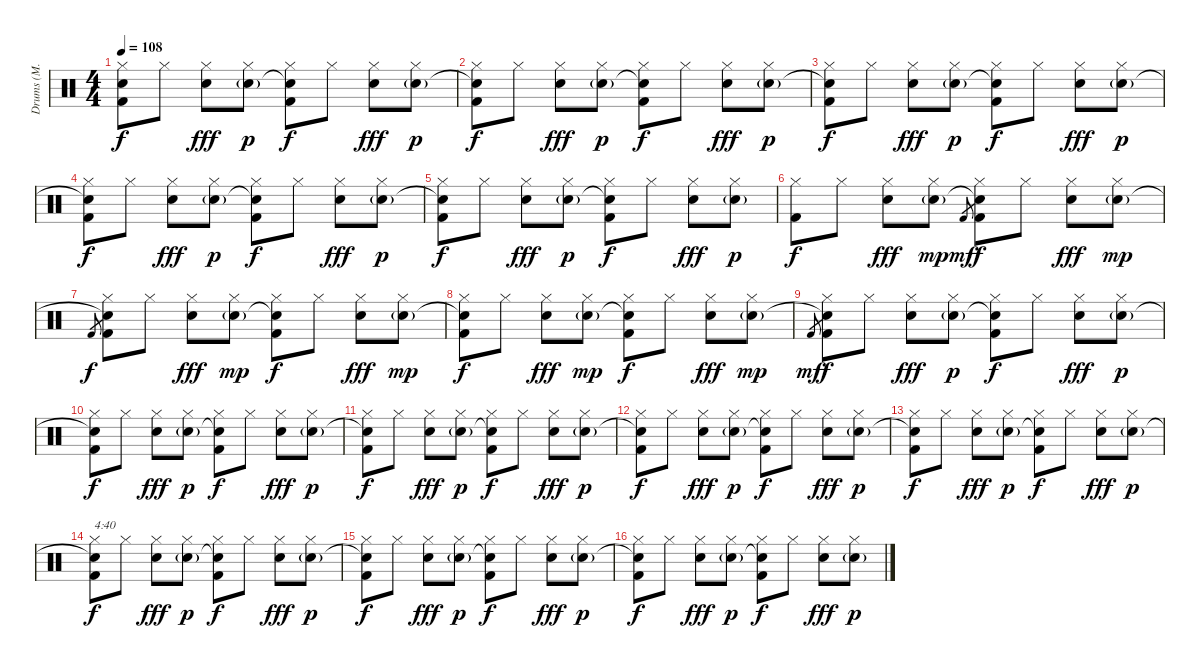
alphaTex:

\track ("Drums (M. Chambers)" "Drums (M. ") {instrument percussion}
\staff {score}
\articulation defaults
\ts (4 4)
\tempo 108
\clef neutral
\ks c
("Hi-Hat (closed)" "Snare (hit)"{t} "Kick (hit) 2").8{dy f} "Hi-Hat (closed)".8 ("Hi-Hat (closed)" "Electric Snare (hit)").8{dy fff} ("Hi-Hat (closed)" "Electric Snare (hit)"{g}).8{dy p} ("Hi-Hat (closed)" "Snare (hit)"{t} "Kick (hit) 2").8{dy f} "Hi-Hat (closed)".8 ("Hi-Hat (closed)" "Electric Snare (hit)").8{dy fff} ("Hi-Hat (closed)" "Electric Snare (hit)"{g}).8{dy p} |
("Hi-Hat (closed)" "Snare (hit)"{t} "Kick (hit) 2").8{dy f} "Hi-Hat (closed)".8 ("Hi-Hat (closed)" "Electric Snare (hit)").8{dy fff} ("Hi-Hat (closed)" "Electric Snare (hit)"{g}).8{dy p} ("Hi-Hat (closed)" "Snare (hit)"{t} "Kick (hit) 2").8{dy f} "Hi-Hat (closed)".8 ("Hi-Hat (closed)" "Electric Snare (hit)").8{dy fff} ("Hi-Hat (closed)" "Electric Snare (hit)"{g}).8{dy p} |
("Hi-Hat (closed)" "Snare (hit)"{t} "Kick (hit) 2").8{dy f} "Hi-Hat (closed)".8 ("Hi-Hat (closed)" "Electric Snare (hit)").8{dy fff} ("Hi-Hat (closed)" "Electric Snare (hit)"{g}).8{dy p} ("Hi-Hat (closed)" "Snare (hit)"{t} "Kick (hit) 2").8{dy f} "Hi-Hat (closed)".8 ("Hi-Hat (closed)" "Electric Snare (hit)").8{dy fff} ("Hi-Hat (closed)" "Electric Snare (hit)"{g}).8{dy p} |
("Hi-Hat (closed)" "Snare (hit)"{t} "Kick (hit) 2").8{dy f} "Hi-Hat (closed)".8 ("Hi-Hat (closed)" "Electric Snare (hit)").8{dy fff} ("Hi-Hat (closed)" "Electric Snare (hit)"{g}).8{dy p} ("Hi-Hat (closed)" "Snare (hit)"{t} "Kick (hit) 2").8{dy f} "Hi-Hat (closed)".8 ("Hi-Hat (closed)" "Electric Snare (hit)").8{dy fff} ("Hi-Hat (closed)" "Electric Snare (hit)"{g}).8{dy p} |
("Hi-Hat (closed)" "Snare (hit)"{t} "Kick (hit) 2").8{dy f} "Hi-Hat (closed)".8 ("Hi-Hat (closed)" "Electric Snare (hit)").8{dy fff} ("Hi-Hat (closed)" "Electric Snare (hit)"{g}).8{dy p} ("Hi-Hat (closed)" "Snare (hit)"{t} "Kick (hit) 2").8{dy f} "Hi-Hat (closed)".8 ("Hi-Hat (closed)" "Electric Snare (hit)").8{dy fff} ("Hi-Hat (closed)" "Electric Snare (hit)"{g}).8{dy p} |
("Hi-Hat (closed)" "Kick (hit) 2").8{dy f} "Hi-Hat (closed)".8 ("Hi-Hat (closed)" "Electric Snare (hit)").8{dy fff} ("Hi-Hat (closed)" "Electric Snare (hit)"{g}).8{dy mp} "Kick (hit) 2".8{gr dy mf} ("Hi-Hat (closed)" "Snare (hit)"{t} "Kick (hit) 2").8{dy f} "Hi-Hat (closed)".8 ("Hi-Hat (closed)" "Electric Snare (hit)").8{dy fff} ("Hi-Hat (closed)" "Electric Snare (hit)"{g}).8{dy mp} |
"Kick (hit) 2".8{gr dy f} ("Hi-Hat (closed)" "Snare (hit)"{t} "Kick (hit) 2").8 "Hi-Hat (closed)".8 ("Hi-Hat (closed)" "Electric Snare (hit)").8{dy fff} ("Hi-Hat (closed)" "Electric Snare (hit)"{g}).8{dy mp} ("Hi-Hat (closed)" "Snare (hit)"{t} "Kick (hit) 2").8{dy f} "Hi-Hat (closed)".8 ("Hi-Hat (closed)" "Electric Snare (hit)").8{dy fff} ("Hi-Hat (closed)" "Electric Snare (hit)"{g}).8{dy mp} |
("Hi-Hat (closed)" "Snare (hit)"{t} "Kick (hit) 2").8{dy f} "Hi-Hat (closed)".8 ("Hi-Hat (closed)" "Electric Snare (hit)").8{dy fff} ("Hi-Hat (closed)" "Electric Snare (hit)"{g}).8{dy mp} ("Hi-Hat (closed)" "Snare (hit)"{t} "Kick (hit) 2").8{dy f} "Hi-Hat (closed)".8 ("Hi-Hat (closed)" "Electric Snare (hit)").8{dy fff} ("Hi-Hat (closed)" "Electric Snare (hit)"{g}).8{dy mp} |
"Kick (hit) 2".8{gr dy mf} ("Hi-Hat (closed)" "Snare (hit)"{t} "Kick (hit) 2").8{dy f} "Hi-Hat (closed)".8 ("Hi-Hat (closed)" "Electric Snare (hit)").8{dy fff} ("Hi-Hat (closed)" "Electric Snare (hit)"{g}).8{dy p} ("Hi-Hat (closed)" "Snare (hit)"{t} "Kick (hit) 2").8{dy f} "Hi-Hat (closed)".8 ("Hi-Hat (closed)" "Electric Snare (hit)").8{dy fff} ("Hi-Hat (closed)" "Electric Snare (hit)"{g}).8{dy p} |
("Hi-Hat (closed)" "Snare (hit)"{t} "Kick (hit) 2").8{dy f} "Hi-Hat (closed)".8 ("Hi-Hat (closed)" "Electric Snare (hit)").8{dy fff} ("Hi-Hat (closed)" "Electric Snare (hit)"{g}).8{dy p} ("Hi-Hat (closed)" "Snare (hit)"{t} "Kick (hit) 2").8{dy f} "Hi-Hat (closed)".8 ("Hi-Hat (closed)" "Electric Snare (hit)").8{dy fff} ("Hi-Hat (closed)" "Electric Snare (hit)"{g}).8{dy p} |
("Hi-Hat (closed)" "Snare (hit)"{t} "Kick (hit) 2").8{dy f} "Hi-Hat (closed)".8 ("Hi-Hat (closed)" "Electric Snare (hit)").8{dy fff} ("Hi-Hat (closed)" "Electric Snare (hit)"{g}).8{dy p} ("Hi-Hat (closed)" "Snare (hit)"{t} "Kick (hit) 2").8{dy f} "Hi-Hat (closed)".8 ("Hi-Hat (closed)" "Electric Snare (hit)").8{dy fff} ("Hi-Hat (closed)" "Electric Snare (hit)"{g}).8{dy p} |
("Hi-Hat (closed)" "Snare (hit)"{t} "Kick (hit) 2").8{dy f} "Hi-Hat (closed)".8 ("Hi-Hat (closed)" "Electric Snare (hit)").8{dy fff} ("Hi-Hat (closed)" "Electric Snare (hit)"{g}).8{dy p} ("Hi-Hat (closed)" "Snare (hit)"{t} "Kick (hit) 2").8{dy f} "Hi-Hat (closed)".8 ("Hi-Hat (closed)" "Electric Snare (hit)").8{dy fff} ("Hi-Hat (closed)" "Electric Snare (hit)"{g}).8{dy p} |
("Hi-Hat (closed)" "Snare (hit)"{t} "Kick (hit) 2").8{dy f} "Hi-Hat (closed)".8 ("Hi-Hat (closed)" "Electric Snare (hit)").8{dy fff} ("Hi-Hat (closed)" "Electric Snare (hit)"{g}).8{dy p} ("Hi-Hat (closed)" "Snare (hit)"{t} "Kick (hit) 2").8{dy f} "Hi-Hat (closed)".8 ("Hi-Hat (closed)" "Electric Snare (hit)").8{dy fff} ("Hi-Hat (closed)" "Electric Snare (hit)"{g}).8{dy p} |
("Hi-Hat (closed)" "Snare (hit)"{t} "Kick (hit) 2").8{txt "4:40" dy f} "Hi-Hat (closed)".8 ("Hi-Hat (closed)" "Electric Snare (hit)").8{dy fff} ("Hi-Hat (closed)" "Electric Snare (hit)"{g}).8{dy p} ("Hi-Hat (closed)" "Snare (hit)"{t} "Kick (hit) 2").8{dy f} "Hi-Hat (closed)".8 ("Hi-Hat (closed)" "Electric Snare (hit)").8{dy fff} ("Hi-Hat (closed)" "Electric Snare (hit)"{g}).8{dy p} |
("Hi-Hat (closed)" "Snare (hit)"{t} "Kick (hit) 2").8{dy f} "Hi-Hat (closed)".8 ("Hi-Hat (closed)" "Electric Snare (hit)").8{dy fff} ("Hi-Hat (closed)" "Electric Snare (hit)"{g}).8{dy p} ("Hi-Hat (closed)" "Snare (hit)"{t} "Kick (hit) 2").8{dy f} "Hi-Hat (closed)".8 ("Hi-Hat (closed)" "Electric Snare (hit)").8{dy fff} ("Hi-Hat (closed)" "Electric Snare (hit)"{g}).8{dy p} |
("Hi-Hat (closed)" "Snare (hit)"{t} "Kick (hit) 2").8{dy f} "Hi-Hat (closed)".8 ("Hi-Hat (closed)" "Electric Snare (hit)").8{dy fff} ("Hi-Hat (closed)" "Electric Snare (hit)"{g}).8{dy p} ("Hi-Hat (closed)" "Snare (hit)"{t} "Kick (hit) 2").8{dy f} "Hi-Hat (closed)".8 ("Hi-Hat (closed)" "Electric Snare (hit)").8{dy fff} ("Hi-Hat (closed)" "Electric Snare (hit)"{g}).8{dy p}
